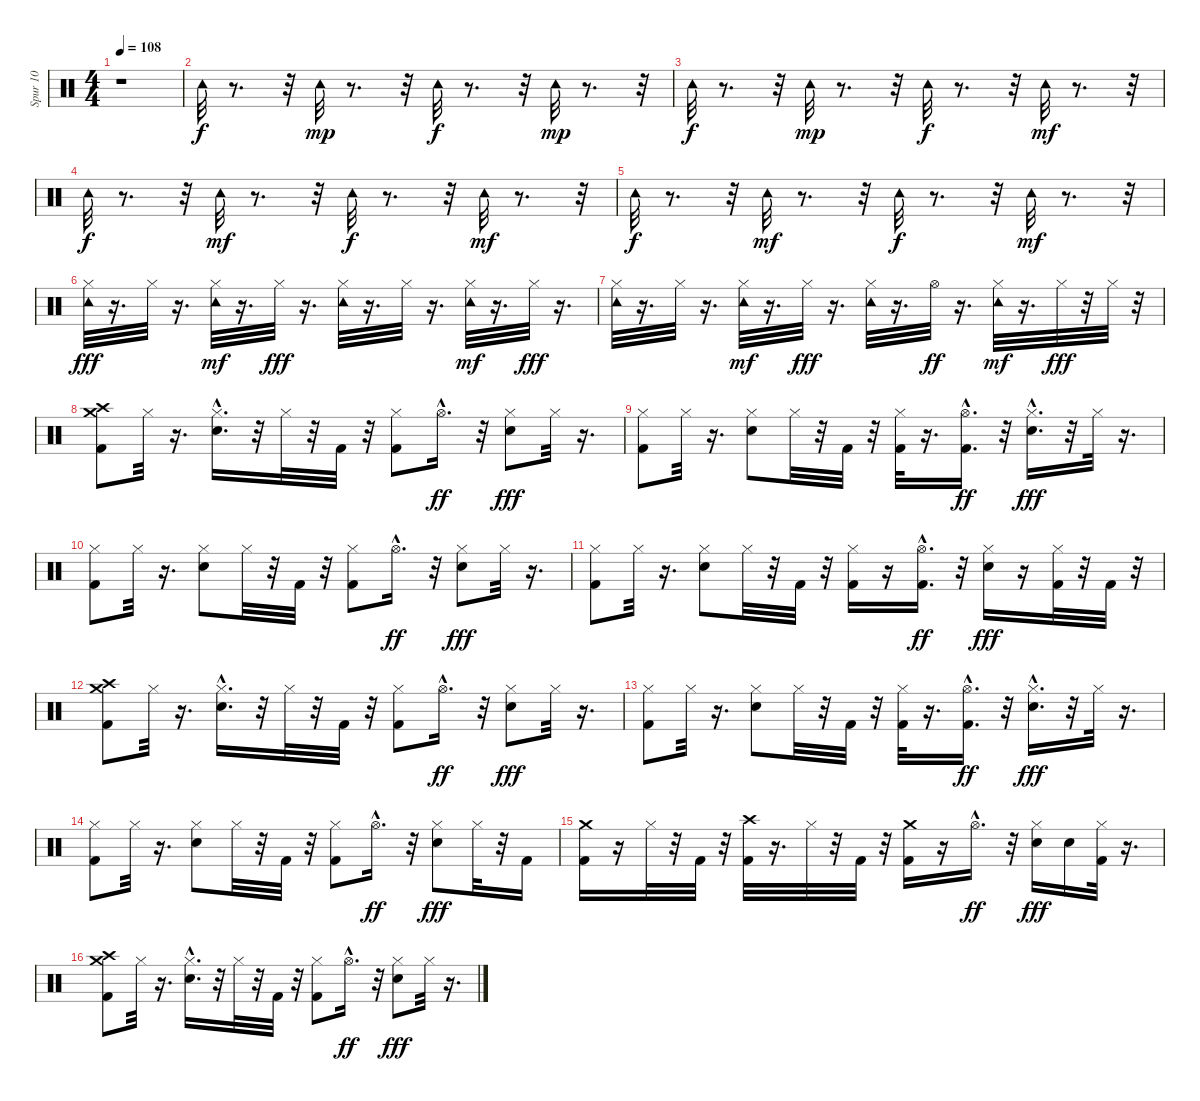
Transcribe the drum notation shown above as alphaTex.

\track ("Spur 10" "Spur 10") {instrument percussion}
\staff {score}
\articulation defaults
\ts (4 4)
\tempo 108
\clef neutral
\ks c
r.1{dy f} |
"Tambourine (hit)".32 r.8{d} r.32 "Tambourine (hit)".32{dy mp} r.8{d} r.32 "Tambourine (hit)".32{dy f} r.8{d} r.32 "Tambourine (hit)".32{dy mp} r.8{d} r.32 |
"Tambourine (hit)".32{dy f} r.8{d} r.32 "Tambourine (hit)".32{dy mp} r.8{d} r.32 "Tambourine (hit)".32{dy f} r.8{d} r.32 "Tambourine (hit)".32{dy mf} r.8{d} r.32 |
"Tambourine (hit)".32{dy f} r.8{d} r.32 "Tambourine (hit)".32{dy mf} r.8{d} r.32 "Tambourine (hit)".32{dy f} r.8{d} r.32 "Tambourine (hit)".32{dy mf} r.8{d} r.32 |
"Tambourine (hit)".32{dy f} r.8{d} r.32 "Tambourine (hit)".32{dy mf} r.8{d} r.32 "Tambourine (hit)".32{dy f} r.8{d} r.32 "Tambourine (hit)".32{dy mf} r.8{d} r.32 |
("Hi-Hat (closed)" "Tambourine (hit)").32{dy fff} r.16{d} "Hi-Hat (closed)".32 r.16{d} ("Hi-Hat (closed)" "Tambourine (hit)").32{dy mf} r.16{d} "Hi-Hat (closed)".32{dy fff} r.16{d} ("Hi-Hat (closed)" "Tambourine (hit)").32 r.16{d} "Hi-Hat (closed)".32 r.16{d} ("Hi-Hat (closed)" "Tambourine (hit)").32{dy mf} r.16{d} "Hi-Hat (closed)".32{dy fff} r.16{d} |
("Hi-Hat (closed)" "Tambourine (hit)").32 r.16{d} "Hi-Hat (closed)".32 r.16{d} ("Hi-Hat (closed)" "Tambourine (hit)").32{dy mf} r.16{d} "Hi-Hat (closed)".32{dy fff} r.16{d} ("Hi-Hat (closed)" "Tambourine (hit)").32 r.16{d} "Hi-Hat (open)".32{dy ff} r.16{d} ("Hi-Hat (closed)" "Tambourine (hit)").32{dy mf} r.16{d} "Hi-Hat (closed)".32{dy fff} r.32 "Hi-Hat (closed)".32 r.32 |
("Kick (hit) 2" "Crash medium (hit)" "Crash high (hit)").8 "Hi-Hat (closed)".32 r.16{d} ("Snare (hit) 2"{hac} "Hi-Hat (closed)").16{d} r.32 "Hi-Hat (closed)".32 r.32 "Kick (hit) 2".32 r.32 ("Kick (hit) 2" "Hi-Hat (closed)").8 "Hi-Hat (open)"{hac}.16{d dy ff} r.32 ("Snare (hit) 2" "Hi-Hat (closed)").8{dy fff} "Hi-Hat (closed)".32 r.16{d} |
("Kick (hit) 2" "Hi-Hat (closed)").8 "Hi-Hat (closed)".32 r.16{d} ("Snare (hit) 2" "Hi-Hat (closed)").8 "Hi-Hat (closed)".32 r.32 "Kick (hit) 2".32 r.32 ("Kick (hit) 2" "Hi-Hat (closed)").32 r.16{d} ("Kick (hit) 2" "Hi-Hat (open)"{hac}).16{d dy ff} r.32 ("Snare (hit) 2"{hac} "Hi-Hat (closed)").16{d dy fff} r.32 "Hi-Hat (closed)".32 r.16{d} |
("Kick (hit) 2" "Hi-Hat (closed)").8 "Hi-Hat (closed)".32 r.16{d} ("Snare (hit) 2" "Hi-Hat (closed)").8 "Hi-Hat (closed)".32 r.32 "Kick (hit) 2".32 r.32 ("Kick (hit) 2" "Hi-Hat (closed)").8 "Hi-Hat (open)"{hac}.16{d dy ff} r.32 ("Snare (hit) 2" "Hi-Hat (closed)").8{dy fff} "Hi-Hat (closed)".32 r.16{d} |
("Kick (hit) 2" "Hi-Hat (closed)").8 "Hi-Hat (closed)".32 r.16{d} ("Snare (hit) 2" "Hi-Hat (closed)").8 "Hi-Hat (closed)".32 r.32 "Kick (hit) 2".32 r.32 ("Kick (hit) 2" "Hi-Hat (closed)").16 r.16 ("Kick (hit) 2" "Hi-Hat (open)"{hac}).16{d dy ff} r.32 ("Snare (hit) 2" "Hi-Hat (closed)").16{dy fff} r.16 ("Kick (hit) 2" "Hi-Hat (closed)").32 r.32 "Kick (hit) 2".32 r.32 |
("Crash medium (hit)" "Kick (hit) 2" "Crash high (hit)").8 "Hi-Hat (closed)".32 r.16{d} ("Snare (hit) 2"{hac} "Hi-Hat (closed)").16{d} r.32 "Hi-Hat (closed)".32 r.32 "Kick (hit) 2".32 r.32 ("Kick (hit) 2" "Hi-Hat (closed)").8 "Hi-Hat (open)"{hac}.16{d dy ff} r.32 ("Snare (hit) 2" "Hi-Hat (closed)").8{dy fff} "Hi-Hat (closed)".32 r.16{d} |
("Kick (hit) 2" "Hi-Hat (closed)").8 "Hi-Hat (closed)".32 r.16{d} ("Snare (hit) 2" "Hi-Hat (closed)").8 "Hi-Hat (closed)".32 r.32 "Kick (hit) 2".32 r.32 ("Kick (hit) 2" "Hi-Hat (closed)").32 r.16{d} ("Kick (hit) 2" "Hi-Hat (open)"{hac}).16{d dy ff} r.32 ("Snare (hit) 2"{hac} "Hi-Hat (closed)").16{d dy fff} r.32 "Hi-Hat (closed)".32 r.16{d} |
("Kick (hit) 2" "Hi-Hat (closed)").8 "Hi-Hat (closed)".32 r.16{d} ("Snare (hit) 2" "Hi-Hat (closed)").8 "Hi-Hat (closed)".32 r.32 "Kick (hit) 2".32 r.32 ("Kick (hit) 2" "Hi-Hat (closed)").8 "Hi-Hat (open)"{hac}.16{d dy ff} r.32 ("Snare (hit) 2" "Hi-Hat (closed)").8{dy fff} "Hi-Hat (closed)".32 r.32 "Kick (hit) 2".16 |
("Kick (hit) 2" "Crash medium (hit)").16 r.16 "Hi-Hat (closed)".32 r.32 "Kick (hit) 2".32 r.32 ("Kick (hit) 2" "Crash high (hit)").32 r.16{d} "Hi-Hat (closed)".32 r.32 "Kick (hit) 2".32 r.32 ("Kick (hit) 2" "Crash medium (hit)").16 r.16 "Hi-Hat (open)"{hac}.16{d dy ff} r.32 ("Electric Snare (hit)" "Hi-Hat (closed)").16{dy fff} "Electric Snare (hit)".16 ("Kick (hit) 2" "Hi-Hat (closed)").32 r.16{d} |
("Crash medium (hit)" "Crash high (hit)" "Kick (hit) 2").8 "Hi-Hat (closed)".32 r.16{d} ("Hi-Hat (closed)" "Snare (hit) 2"{hac}).16{d} r.32 "Hi-Hat (closed)".32 r.32 "Kick (hit) 2".32 r.32 ("Hi-Hat (closed)" "Kick (hit) 2").8 "Hi-Hat (open)"{hac}.16{d dy ff} r.32 ("Hi-Hat (closed)" "Snare (hit) 2").8{dy fff} "Hi-Hat (closed)".32 r.16{d}
